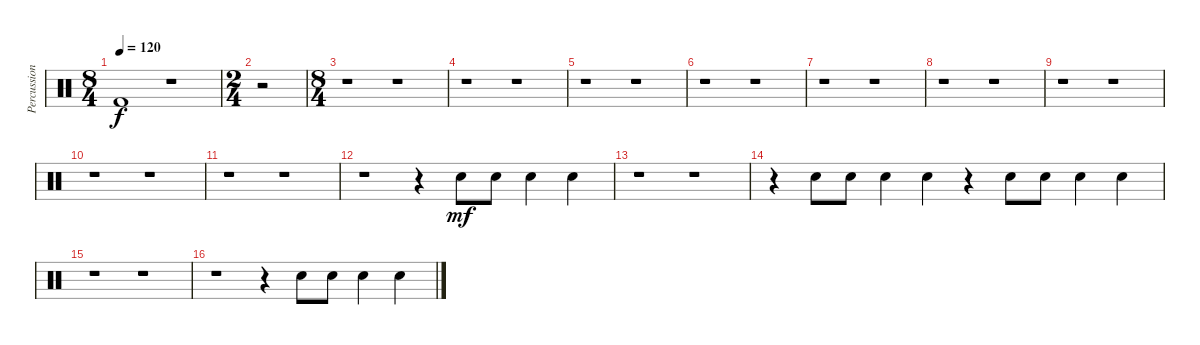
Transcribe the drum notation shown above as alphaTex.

\track ("Percussion" "Percussion") {instrument percussion}
\staff {score}
\articulation defaults
\ts (8 4)
\tempo 120
\clef neutral
\ks c "Kick (hit) 2".1{dy f}
r.1 |
\ts (2 4)
r.2 |
\ts (8 4)
r.1 r.1 |
r.1 r.1 |
r.1 r.1 |
r.1 r.1 |
r.1 r.1 |
r.1 r.1 |
r.1 r.1 |
r.1 r.1 |
r.1 r.1 |
r.1 r.4 "Snare (hit) 2".8{dy mf} "Snare (hit) 2".8 "Snare (hit) 2".4 "Snare (hit) 2".4 |
r.1 r.1 |
r.4 "Snare (hit) 2".8 "Snare (hit) 2".8 "Snare (hit) 2".4 "Snare (hit) 2".4 r.4 "Snare (hit) 2".8 "Snare (hit) 2".8 "Snare (hit) 2".4 "Snare (hit) 2".4 |
r.1 r.1 |
r.1 r.4 "Snare (hit) 2".8 "Snare (hit) 2".8 "Snare (hit) 2".4 "Snare (hit) 2".4
